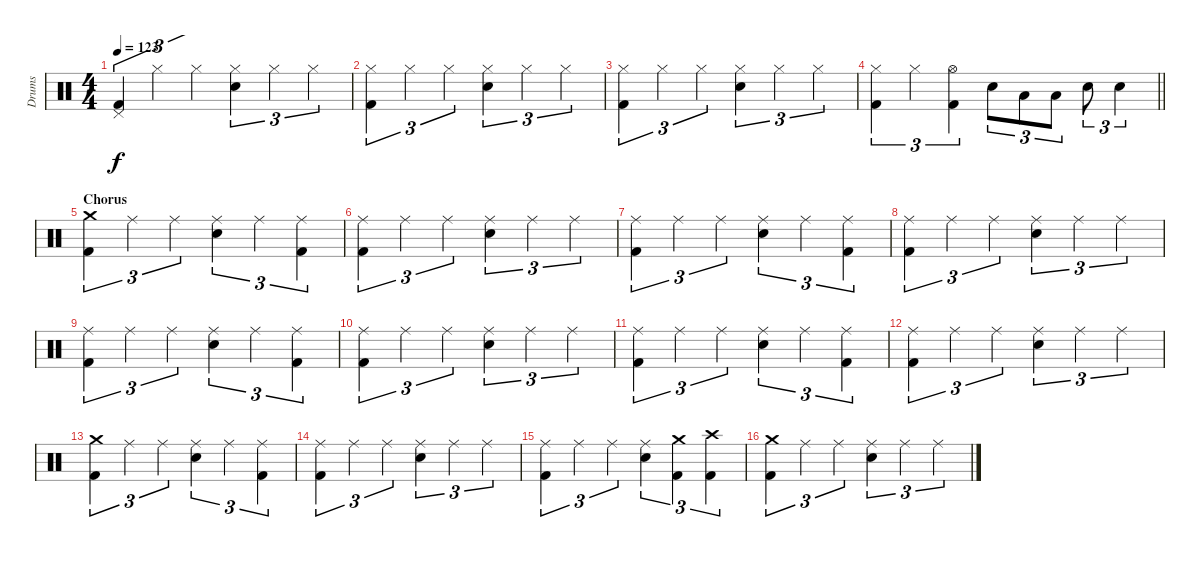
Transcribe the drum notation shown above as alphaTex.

\track ("Drums" "Drums") {instrument percussion}
\staff {score}
\articulation defaults
\ts (4 4)
\tempo 123
\clef neutral
\ks c
("Pedal Hi-Hat (hit)" "Kick (hit) 2").4{tu (3 2) dy f} "Hi-Hat (closed)".4{tu (3 2)} "Hi-Hat (closed)".4{tu (3 2)} ("Hi-Hat (closed)" "Electric Snare (hit)").4{tu (3 2)} "Hi-Hat (closed)".4{tu (3 2)} "Hi-Hat (closed)".4{tu (3 2)} |
("Hi-Hat (closed)" "Kick (hit) 2").4{tu (3 2)} "Hi-Hat (closed)".4{tu (3 2)} "Hi-Hat (closed)".4{tu (3 2)} ("Hi-Hat (closed)" "Electric Snare (hit)").4{tu (3 2)} "Hi-Hat (closed)".4{tu (3 2)} "Hi-Hat (closed)".4{tu (3 2)} |
("Hi-Hat (closed)" "Kick (hit) 2").4{tu (3 2)} "Hi-Hat (closed)".4{tu (3 2)} "Hi-Hat (closed)".4{tu (3 2)} ("Hi-Hat (closed)" "Electric Snare (hit)").4{tu (3 2)} "Hi-Hat (closed)".4{tu (3 2)} "Hi-Hat (closed)".4{tu (3 2)} |
\barLineRight lightlight
("Hi-Hat (closed)" "Kick (hit) 2").4{tu (3 2)} "Hi-Hat (closed)".4{tu (3 2)} ("Hi-Hat (open)" "Kick (hit) 2").4{tu (3 2)} "Electric Snare (hit)".8{tu (3 2)} "Low Tom (hit)".8{tu (3 2)} "Low Floor Tom (hit)".8{tu (3 2)} "Electric Snare (hit)".8{tu (3 2)} "Electric Snare (hit)".4{tu (3 2)} |
\section ("" "Chorus")
("Crash medium (hit)" "Kick (hit) 2").4{tu (3 2)} "Ride (middle)".4{tu (3 2)} "Ride (middle)".4{tu (3 2)} ("Ride (middle)" "Electric Snare (hit)").4{tu (3 2)} "Ride (middle)".4{tu (3 2)} ("Ride (middle)" "Kick (hit) 2").4{tu (3 2)} |
("Ride (middle)" "Kick (hit) 2").4{tu (3 2)} "Ride (middle)".4{tu (3 2)} "Ride (middle)".4{tu (3 2)} ("Ride (middle)" "Electric Snare (hit)").4{tu (3 2)} "Ride (middle)".4{tu (3 2)} "Ride (middle)".4{tu (3 2)} |
("Ride (middle)" "Kick (hit) 2").4{tu (3 2)} "Ride (middle)".4{tu (3 2)} "Ride (middle)".4{tu (3 2)} ("Ride (middle)" "Electric Snare (hit)").4{tu (3 2)} "Ride (middle)".4{tu (3 2)} ("Ride (middle)" "Kick (hit) 2").4{tu (3 2)} |
("Ride (middle)" "Kick (hit) 2").4{tu (3 2)} "Ride (middle)".4{tu (3 2)} "Ride (middle)".4{tu (3 2)} ("Ride (middle)" "Electric Snare (hit)").4{tu (3 2)} "Ride (middle)".4{tu (3 2)} "Ride (middle)".4{tu (3 2)} |
("Ride (middle)" "Kick (hit) 2").4{tu (3 2)} "Ride (middle)".4{tu (3 2)} "Ride (middle)".4{tu (3 2)} ("Ride (middle)" "Electric Snare (hit)").4{tu (3 2)} "Ride (middle)".4{tu (3 2)} ("Ride (middle)" "Kick (hit) 2").4{tu (3 2)} |
("Ride (middle)" "Kick (hit) 2").4{tu (3 2)} "Ride (middle)".4{tu (3 2)} "Ride (middle)".4{tu (3 2)} ("Ride (middle)" "Electric Snare (hit)").4{tu (3 2)} "Ride (middle)".4{tu (3 2)} "Ride (middle)".4{tu (3 2)} |
("Ride (middle)" "Kick (hit) 2").4{tu (3 2)} "Ride (middle)".4{tu (3 2)} "Ride (middle)".4{tu (3 2)} ("Ride (middle)" "Electric Snare (hit)").4{tu (3 2)} "Ride (middle)".4{tu (3 2)} ("Ride (middle)" "Kick (hit) 2").4{tu (3 2)} |
("Ride (middle)" "Kick (hit) 2").4{tu (3 2)} "Ride (middle)".4{tu (3 2)} "Ride (middle)".4{tu (3 2)} ("Ride (middle)" "Electric Snare (hit)").4{tu (3 2)} "Ride (middle)".4{tu (3 2)} "Ride (middle)".4{tu (3 2)} |
("Crash medium (hit)" "Kick (hit) 2").4{tu (3 2)} "Ride (middle)".4{tu (3 2)} "Ride (middle)".4{tu (3 2)} ("Ride (middle)" "Electric Snare (hit)").4{tu (3 2)} "Ride (middle)".4{tu (3 2)} ("Ride (middle)" "Kick (hit) 2").4{tu (3 2)} |
("Ride (middle)" "Kick (hit) 2").4{tu (3 2)} "Ride (middle)".4{tu (3 2)} "Ride (middle)".4{tu (3 2)} ("Ride (middle)" "Electric Snare (hit)").4{tu (3 2)} "Ride (middle)".4{tu (3 2)} "Ride (middle)".4{tu (3 2)} |
("Ride (middle)" "Kick (hit) 2").4{tu (3 2)} "Ride (middle)".4{tu (3 2)} "Ride (middle)".4{tu (3 2)} ("Ride (middle)" "Electric Snare (hit)").4{tu (3 2)} ("Crash medium (hit)" "Kick (hit) 2").4{tu (3 2)} ("Crash high (hit)" "Kick (hit) 2").4{tu (3 2)} |
("Crash medium (hit)" "Kick (hit) 2").4{tu (3 2)} "Ride (middle)".4{tu (3 2)} "Ride (middle)".4{tu (3 2)} ("Ride (middle)" "Electric Snare (hit)").4{tu (3 2)} "Ride (middle)".4{tu (3 2)} "Ride (middle)".4{tu (3 2)}
